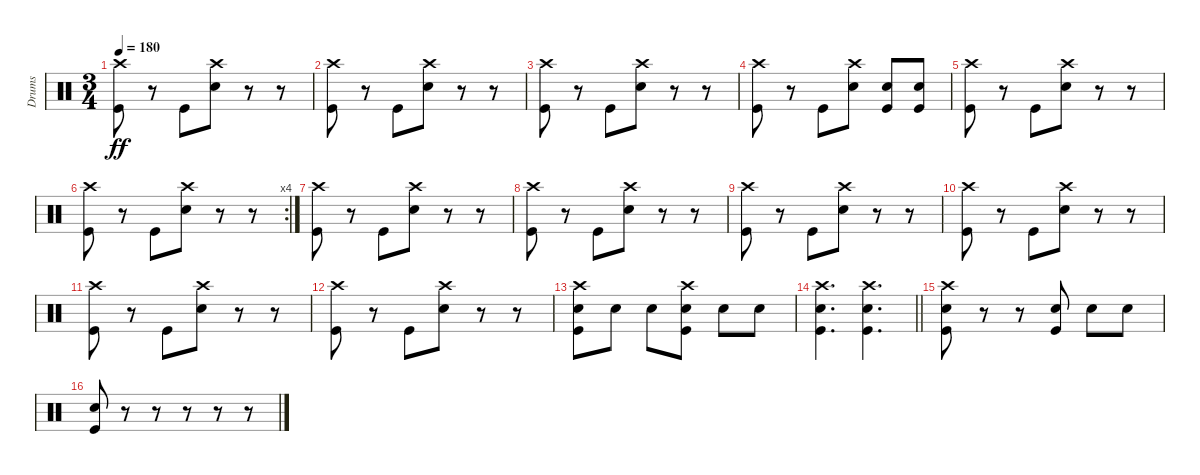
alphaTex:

\track ("Drums" "Drums") {instrument percussion}
\staff {score}
\articulation defaults
\ts (3 4)
\tempo 180
\clef neutral
\ks c
("Crash high (hit)" "Kick (hit)").8{dy ff} r.8 "Kick (hit)".8 ("Crash high (hit)" "Snare (hit) 2").8 r.8 r.8 |
("Crash high (hit)" "Kick (hit)").8 r.8 "Kick (hit)".8 ("Crash high (hit)" "Snare (hit) 2").8 r.8 r.8 |
("Crash high (hit)" "Kick (hit)").8 r.8 "Kick (hit)".8 ("Crash high (hit)" "Snare (hit) 2").8 r.8 r.8 |
("Crash high (hit)" "Kick (hit)").8 r.8 "Kick (hit)".8 ("Crash high (hit)" "Snare (hit) 2").8 ("Snare (hit) 2" "Kick (hit)").8 ("Snare (hit) 2" "Kick (hit)").8 |
("Crash high (hit)" "Kick (hit)").8 r.8 "Kick (hit)".8 ("Crash high (hit)" "Snare (hit) 2").8 r.8 r.8 |
\rc 4
("Crash high (hit)" "Kick (hit)").8 r.8 "Kick (hit)".8 ("Crash high (hit)" "Snare (hit) 2").8 r.8 r.8 |
("Crash high (hit)" "Kick (hit)").8 r.8 "Kick (hit)".8 ("Crash high (hit)" "Snare (hit) 2").8 r.8 r.8 |
("Crash high (hit)" "Kick (hit)").8 r.8 "Kick (hit)".8 ("Crash high (hit)" "Snare (hit) 2").8 r.8 r.8 |
("Crash high (hit)" "Kick (hit)").8 r.8 "Kick (hit)".8 ("Crash high (hit)" "Snare (hit) 2").8 r.8 r.8 |
("Crash high (hit)" "Kick (hit)").8 r.8 "Kick (hit)".8 ("Crash high (hit)" "Snare (hit) 2").8 r.8 r.8 |
("Crash high (hit)" "Kick (hit)").8 r.8 "Kick (hit)".8 ("Crash high (hit)" "Snare (hit) 2").8 r.8 r.8 |
("Crash high (hit)" "Kick (hit)").8 r.8 "Kick (hit)".8 ("Crash high (hit)" "Snare (hit) 2").8 r.8 r.8 |
("Crash high (hit)" "Snare (hit) 2" "Kick (hit)").8 "Snare (hit) 2".8 "Snare (hit) 2".8 ("Crash high (hit)" "Snare (hit) 2" "Kick (hit)").8 "Snare (hit) 2".8 "Snare (hit) 2".8 |
\barLineRight lightlight
("Crash high (hit)" "Snare (hit) 2" "Kick (hit)").4{d} ("Crash high (hit)" "Snare (hit) 2" "Kick (hit)").4{d} |
("Crash high (hit)" "Snare (hit) 2" "Kick (hit)").8 r.8 r.8 ("Snare (hit) 2" "Kick (hit)").8 "Snare (hit) 2".8 "Snare (hit) 2".8 |
("Snare (hit) 2" "Kick (hit)").8 r.8{volume 0} r.8 r.8 r.8 r.8
